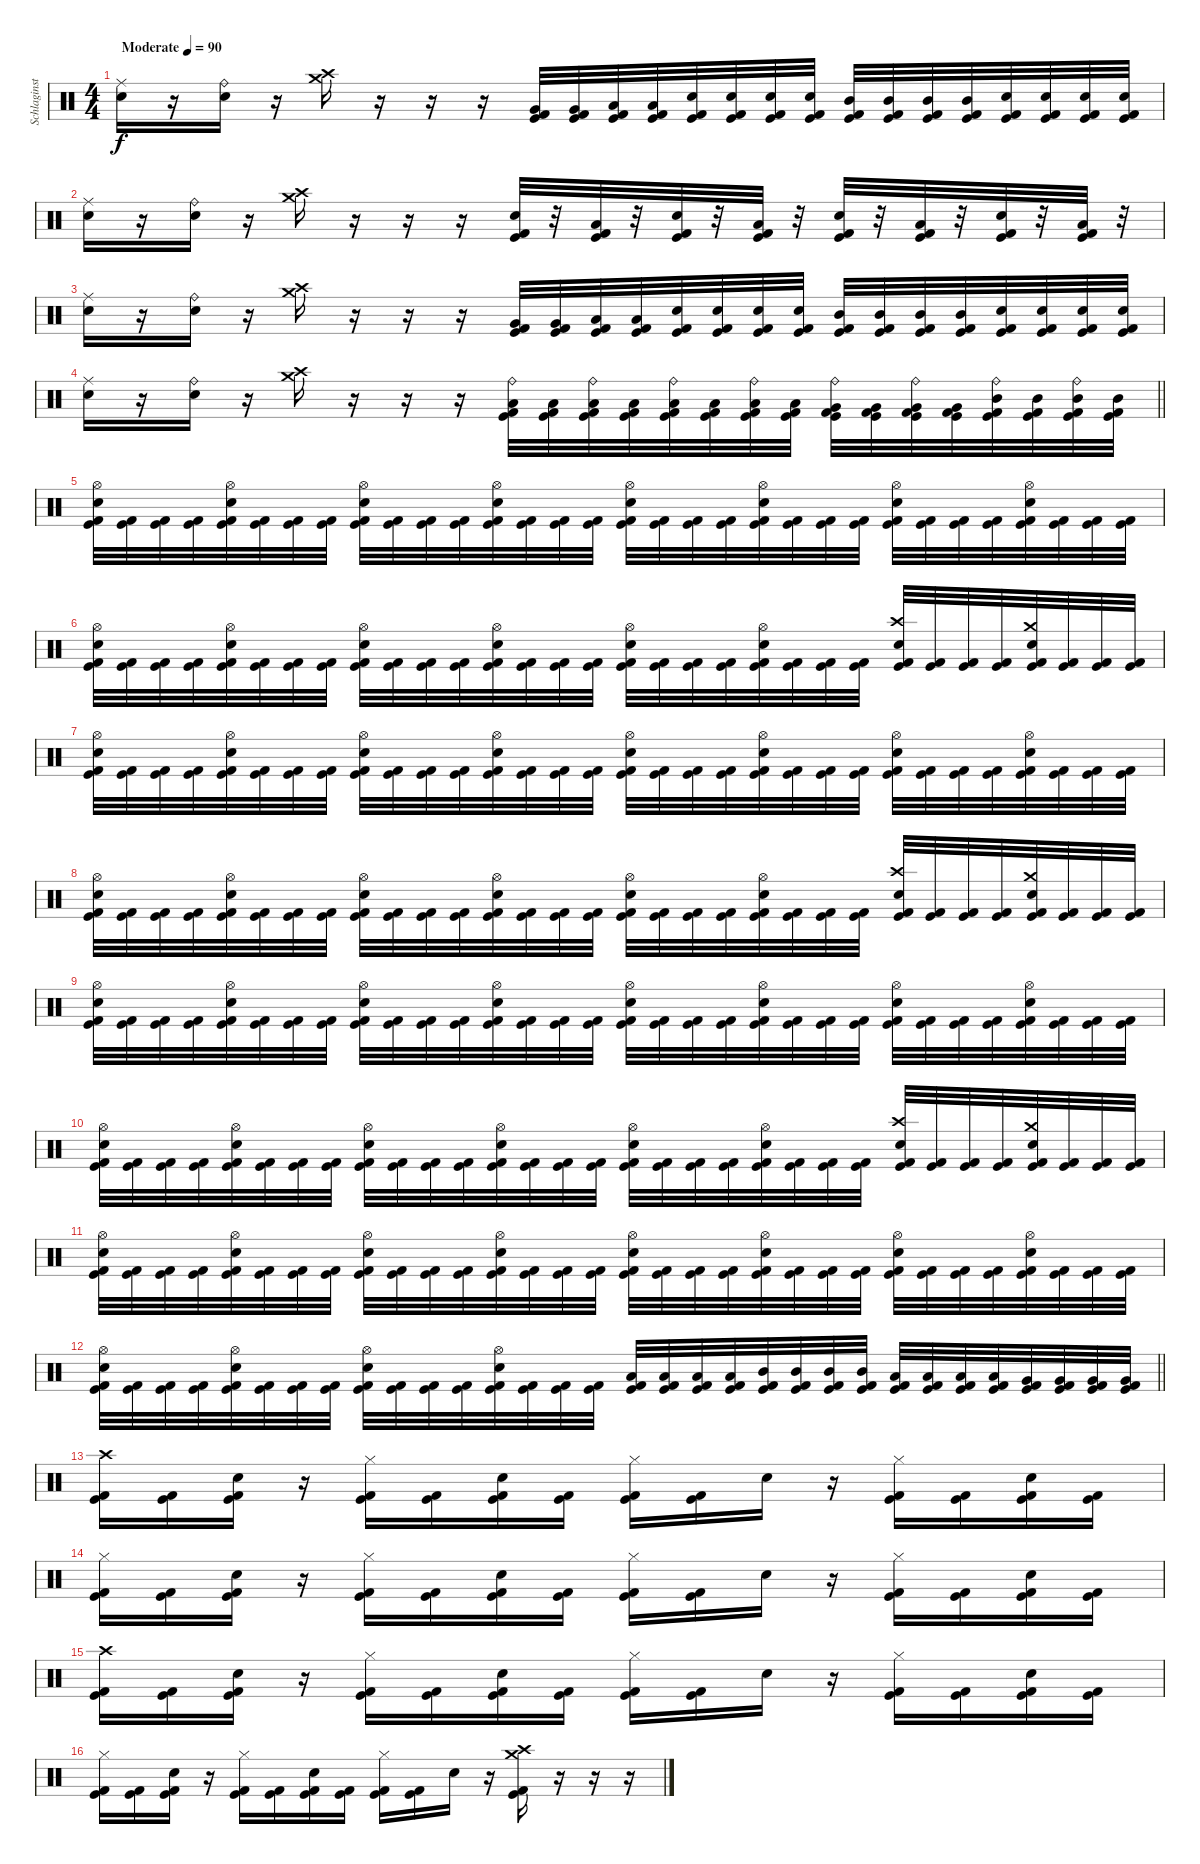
\track ("Schlaginstrumente - Auswahl" "Schlaginst") {instrument percussion}
\staff {score}
\articulation defaults
\ts (4 4)
\tempo (90 "Moderate")
\clef neutral
\ks c
("Ride (middle)" "Electric Snare (hit)").16{dy f} r.16 ("Ride (bell)" "Snare (hit) 2").16 r.16 ("Crash high (hit)" "Crash medium (hit)").16 r.16 r.16 r.16 ("Very Low Tom (hit)" "Kick (hit)" "Kick (hit) 2").32 ("Very Low Tom (hit)" "Kick (hit)" "Kick (hit) 2").32 ("Low Floor Tom (hit)" "Kick (hit)" "Kick (hit) 2").32 ("Low Floor Tom (hit)" "Kick (hit)" "Kick (hit) 2").32 ("Electric Snare (hit)" "Kick (hit)" "Kick (hit) 2").32 ("Electric Snare (hit)" "Kick (hit)" "Kick (hit) 2").32 ("Electric Snare (hit)" "Kick (hit)" "Kick (hit) 2").32 ("Electric Snare (hit)" "Kick (hit)" "Kick (hit) 2").32 ("Mid Tom (hit)" "Kick (hit)" "Kick (hit) 2").32 ("Mid Tom (hit)" "Kick (hit)" "Kick (hit) 2").32 ("Mid Tom (hit)" "Kick (hit)" "Kick (hit) 2").32 ("Mid Tom (hit)" "Kick (hit)" "Kick (hit) 2").32 ("Electric Snare (hit)" "Kick (hit)" "Kick (hit) 2").32 ("Electric Snare (hit)" "Kick (hit)" "Kick (hit) 2").32 ("Electric Snare (hit)" "Kick (hit)" "Kick (hit) 2").32 ("Electric Snare (hit)" "Kick (hit)" "Kick (hit) 2").32 |
("Ride (middle)" "Electric Snare (hit)").16 r.16 ("Ride (bell)" "Snare (hit) 2").16 r.16 ("Crash high (hit)" "Crash medium (hit)").16 r.16 r.16 r.16 ("Electric Snare (hit)" "Kick (hit)" "Kick (hit) 2").32 r.32 ("Low Floor Tom (hit)" "Kick (hit)" "Kick (hit) 2").32 r.32 ("Electric Snare (hit)" "Kick (hit)" "Kick (hit) 2").32 r.32 ("Low Floor Tom (hit)" "Kick (hit)" "Kick (hit) 2").32 r.32 ("Electric Snare (hit)" "Kick (hit)" "Kick (hit) 2").32 r.32 ("Low Floor Tom (hit)" "Kick (hit)" "Kick (hit) 2").32 r.32 ("Electric Snare (hit)" "Kick (hit)" "Kick (hit) 2").32 r.32 ("Low Floor Tom (hit)" "Kick (hit)" "Kick (hit) 2").32 r.32 |
("Ride (middle)" "Electric Snare (hit)").16 r.16 ("Ride (bell)" "Snare (hit) 2").16 r.16 ("Crash high (hit)" "Crash medium (hit)").16 r.16 r.16 r.16 ("Very Low Tom (hit)" "Kick (hit)" "Kick (hit) 2").32 ("Very Low Tom (hit)" "Kick (hit)" "Kick (hit) 2").32 ("Low Floor Tom (hit)" "Kick (hit)" "Kick (hit) 2").32 ("Low Floor Tom (hit)" "Kick (hit)" "Kick (hit) 2").32 ("Electric Snare (hit)" "Kick (hit)" "Kick (hit) 2").32 ("Electric Snare (hit)" "Kick (hit)" "Kick (hit) 2").32 ("Electric Snare (hit)" "Kick (hit)" "Kick (hit) 2").32 ("Electric Snare (hit)" "Kick (hit)" "Kick (hit) 2").32 ("Mid Tom (hit)" "Kick (hit)" "Kick (hit) 2").32 ("Mid Tom (hit)" "Kick (hit)" "Kick (hit) 2").32 ("Mid Tom (hit)" "Kick (hit)" "Kick (hit) 2").32 ("Mid Tom (hit)" "Kick (hit)" "Kick (hit) 2").32 ("Electric Snare (hit)" "Kick (hit)" "Kick (hit) 2").32 ("Electric Snare (hit)" "Kick (hit)" "Kick (hit) 2").32 ("Electric Snare (hit)" "Kick (hit)" "Kick (hit) 2").32 ("Electric Snare (hit)" "Kick (hit)" "Kick (hit) 2").32 |
\barLineRight lightlight
("Ride (middle)" "Electric Snare (hit)").16 r.16 ("Ride (bell)" "Snare (hit) 2").16 r.16 ("Crash high (hit)" "Crash medium (hit)").16 r.16 r.16 r.16 ("Ride (bell)" "Low Tom (hit)" "Kick (hit)" "Kick (hit) 2").32 ("Low Tom (hit)" "Kick (hit)" "Kick (hit) 2").32 ("Ride (bell)" "Low Tom (hit)" "Kick (hit)" "Kick (hit) 2").32 ("Low Tom (hit)" "Kick (hit)" "Kick (hit) 2").32 ("Ride (bell)" "Low Floor Tom (hit)" "Kick (hit)" "Kick (hit) 2").32 ("Low Floor Tom (hit)" "Kick (hit)" "Kick (hit) 2").32 ("Ride (bell)" "Low Floor Tom (hit)" "Kick (hit)" "Kick (hit) 2").32 ("Low Floor Tom (hit)" "Kick (hit)" "Kick (hit) 2").32 ("Ride (bell)" "Very Low Tom (hit)" "Kick (hit)" "Kick (hit) 2").32 ("Very Low Tom (hit)" "Kick (hit)" "Kick (hit) 2").32 ("Ride (bell)" "Very Low Tom (hit)" "Kick (hit)" "Kick (hit) 2").32 ("Very Low Tom (hit)" "Kick (hit)" "Kick (hit) 2").32 ("Ride (bell)" "Mid Tom (hit)" "Kick (hit)" "Kick (hit) 2").32 ("Mid Tom (hit)" "Kick (hit)" "Kick (hit) 2").32 ("Ride (bell)" "Mid Tom (hit)" "Kick (hit)" "Kick (hit) 2").32 ("Mid Tom (hit)" "Kick (hit)" "Kick (hit) 2").32 |
("Hi-Hat (open)" "Electric Snare (hit)" "Kick (hit)" "Kick (hit) 2").32 ("Kick (hit)" "Kick (hit) 2").32 ("Kick (hit)" "Kick (hit) 2").32 ("Kick (hit)" "Kick (hit) 2").32 ("Hi-Hat (open)" "Electric Snare (hit)" "Kick (hit)" "Kick (hit) 2").32 ("Kick (hit)" "Kick (hit) 2").32 ("Kick (hit)" "Kick (hit) 2").32 ("Kick (hit)" "Kick (hit) 2").32 ("Hi-Hat (open)" "Electric Snare (hit)" "Kick (hit)" "Kick (hit) 2").32 ("Kick (hit)" "Kick (hit) 2").32 ("Kick (hit)" "Kick (hit) 2").32 ("Kick (hit)" "Kick (hit) 2").32 ("Hi-Hat (open)" "Electric Snare (hit)" "Kick (hit)" "Kick (hit) 2").32 ("Kick (hit)" "Kick (hit) 2").32 ("Kick (hit)" "Kick (hit) 2").32 ("Kick (hit)" "Kick (hit) 2").32 ("Hi-Hat (open)" "Electric Snare (hit)" "Kick (hit)" "Kick (hit) 2").32 ("Kick (hit)" "Kick (hit) 2").32 ("Kick (hit)" "Kick (hit) 2").32 ("Kick (hit)" "Kick (hit) 2").32 ("Hi-Hat (open)" "Electric Snare (hit)" "Kick (hit)" "Kick (hit) 2").32 ("Kick (hit)" "Kick (hit) 2").32 ("Kick (hit)" "Kick (hit) 2").32 ("Kick (hit)" "Kick (hit) 2").32 ("Hi-Hat (open)" "Electric Snare (hit)" "Kick (hit)" "Kick (hit) 2").32 ("Kick (hit)" "Kick (hit) 2").32 ("Kick (hit)" "Kick (hit) 2").32 ("Kick (hit)" "Kick (hit) 2").32 ("Hi-Hat (open)" "Electric Snare (hit)" "Kick (hit)" "Kick (hit) 2").32 ("Kick (hit)" "Kick (hit) 2").32 ("Kick (hit)" "Kick (hit) 2").32 ("Kick (hit)" "Kick (hit) 2").32 |
("Hi-Hat (open)" "Electric Snare (hit)" "Kick (hit)" "Kick (hit) 2").32 ("Kick (hit)" "Kick (hit) 2").32 ("Kick (hit)" "Kick (hit) 2").32 ("Kick (hit)" "Kick (hit) 2").32 ("Hi-Hat (open)" "Electric Snare (hit)" "Kick (hit)" "Kick (hit) 2").32 ("Kick (hit)" "Kick (hit) 2").32 ("Kick (hit)" "Kick (hit) 2").32 ("Kick (hit)" "Kick (hit) 2").32 ("Hi-Hat (open)" "Electric Snare (hit)" "Kick (hit)" "Kick (hit) 2").32 ("Kick (hit)" "Kick (hit) 2").32 ("Kick (hit)" "Kick (hit) 2").32 ("Kick (hit)" "Kick (hit) 2").32 ("Hi-Hat (open)" "Electric Snare (hit)" "Kick (hit)" "Kick (hit) 2").32 ("Kick (hit)" "Kick (hit) 2").32 ("Kick (hit)" "Kick (hit) 2").32 ("Kick (hit)" "Kick (hit) 2").32 ("Hi-Hat (open)" "Electric Snare (hit)" "Kick (hit)" "Kick (hit) 2").32 ("Kick (hit)" "Kick (hit) 2").32 ("Kick (hit)" "Kick (hit) 2").32 ("Kick (hit)" "Kick (hit) 2").32 ("Hi-Hat (open)" "Electric Snare (hit)" "Kick (hit)" "Kick (hit) 2").32 ("Kick (hit)" "Kick (hit) 2").32 ("Kick (hit)" "Kick (hit) 2").32 ("Kick (hit)" "Kick (hit) 2").32 ("Crash high (hit)" "Electric Snare (hit)" "Kick (hit)" "Kick (hit) 2").32 ("Kick (hit)" "Kick (hit) 2").32 ("Kick (hit)" "Kick (hit) 2").32 ("Kick (hit)" "Kick (hit) 2").32 ("Crash medium (hit)" "Electric Snare (hit)" "Kick (hit)" "Kick (hit) 2").32 ("Kick (hit)" "Kick (hit) 2").32 ("Kick (hit)" "Kick (hit) 2").32 ("Kick (hit)" "Kick (hit) 2").32 |
("Hi-Hat (open)" "Electric Snare (hit)" "Kick (hit)" "Kick (hit) 2").32 ("Kick (hit)" "Kick (hit) 2").32 ("Kick (hit)" "Kick (hit) 2").32 ("Kick (hit)" "Kick (hit) 2").32 ("Hi-Hat (open)" "Electric Snare (hit)" "Kick (hit)" "Kick (hit) 2").32 ("Kick (hit)" "Kick (hit) 2").32 ("Kick (hit)" "Kick (hit) 2").32 ("Kick (hit)" "Kick (hit) 2").32 ("Hi-Hat (open)" "Electric Snare (hit)" "Kick (hit)" "Kick (hit) 2").32 ("Kick (hit)" "Kick (hit) 2").32 ("Kick (hit)" "Kick (hit) 2").32 ("Kick (hit)" "Kick (hit) 2").32 ("Hi-Hat (open)" "Electric Snare (hit)" "Kick (hit)" "Kick (hit) 2").32 ("Kick (hit)" "Kick (hit) 2").32 ("Kick (hit)" "Kick (hit) 2").32 ("Kick (hit)" "Kick (hit) 2").32 ("Hi-Hat (open)" "Electric Snare (hit)" "Kick (hit)" "Kick (hit) 2").32 ("Kick (hit)" "Kick (hit) 2").32 ("Kick (hit)" "Kick (hit) 2").32 ("Kick (hit)" "Kick (hit) 2").32 ("Hi-Hat (open)" "Electric Snare (hit)" "Kick (hit)" "Kick (hit) 2").32 ("Kick (hit)" "Kick (hit) 2").32 ("Kick (hit)" "Kick (hit) 2").32 ("Kick (hit)" "Kick (hit) 2").32 ("Hi-Hat (open)" "Electric Snare (hit)" "Kick (hit)" "Kick (hit) 2").32 ("Kick (hit)" "Kick (hit) 2").32 ("Kick (hit)" "Kick (hit) 2").32 ("Kick (hit)" "Kick (hit) 2").32 ("Hi-Hat (open)" "Electric Snare (hit)" "Kick (hit)" "Kick (hit) 2").32 ("Kick (hit)" "Kick (hit) 2").32 ("Kick (hit)" "Kick (hit) 2").32 ("Kick (hit)" "Kick (hit) 2").32 |
("Hi-Hat (open)" "Electric Snare (hit)" "Kick (hit)" "Kick (hit) 2").32 ("Kick (hit)" "Kick (hit) 2").32 ("Kick (hit)" "Kick (hit) 2").32 ("Kick (hit)" "Kick (hit) 2").32 ("Hi-Hat (open)" "Electric Snare (hit)" "Kick (hit)" "Kick (hit) 2").32 ("Kick (hit)" "Kick (hit) 2").32 ("Kick (hit)" "Kick (hit) 2").32 ("Kick (hit)" "Kick (hit) 2").32 ("Hi-Hat (open)" "Electric Snare (hit)" "Kick (hit)" "Kick (hit) 2").32 ("Kick (hit)" "Kick (hit) 2").32 ("Kick (hit)" "Kick (hit) 2").32 ("Kick (hit)" "Kick (hit) 2").32 ("Hi-Hat (open)" "Electric Snare (hit)" "Kick (hit)" "Kick (hit) 2").32 ("Kick (hit)" "Kick (hit) 2").32 ("Kick (hit)" "Kick (hit) 2").32 ("Kick (hit)" "Kick (hit) 2").32 ("Hi-Hat (open)" "Electric Snare (hit)" "Kick (hit)" "Kick (hit) 2").32 ("Kick (hit)" "Kick (hit) 2").32 ("Kick (hit)" "Kick (hit) 2").32 ("Kick (hit)" "Kick (hit) 2").32 ("Hi-Hat (open)" "Electric Snare (hit)" "Kick (hit)" "Kick (hit) 2").32 ("Kick (hit)" "Kick (hit) 2").32 ("Kick (hit)" "Kick (hit) 2").32 ("Kick (hit)" "Kick (hit) 2").32 ("Crash high (hit)" "Electric Snare (hit)" "Kick (hit)" "Kick (hit) 2").32 ("Kick (hit)" "Kick (hit) 2").32 ("Kick (hit)" "Kick (hit) 2").32 ("Kick (hit)" "Kick (hit) 2").32 ("Crash medium (hit)" "Electric Snare (hit)" "Kick (hit)" "Kick (hit) 2").32 ("Kick (hit)" "Kick (hit) 2").32 ("Kick (hit)" "Kick (hit) 2").32 ("Kick (hit)" "Kick (hit) 2").32 |
("Hi-Hat (open)" "Electric Snare (hit)" "Kick (hit)" "Kick (hit) 2").32 ("Kick (hit)" "Kick (hit) 2").32 ("Kick (hit)" "Kick (hit) 2").32 ("Kick (hit)" "Kick (hit) 2").32 ("Hi-Hat (open)" "Electric Snare (hit)" "Kick (hit)" "Kick (hit) 2").32 ("Kick (hit)" "Kick (hit) 2").32 ("Kick (hit)" "Kick (hit) 2").32 ("Kick (hit)" "Kick (hit) 2").32 ("Hi-Hat (open)" "Electric Snare (hit)" "Kick (hit)" "Kick (hit) 2").32 ("Kick (hit)" "Kick (hit) 2").32 ("Kick (hit)" "Kick (hit) 2").32 ("Kick (hit)" "Kick (hit) 2").32 ("Hi-Hat (open)" "Electric Snare (hit)" "Kick (hit)" "Kick (hit) 2").32 ("Kick (hit)" "Kick (hit) 2").32 ("Kick (hit)" "Kick (hit) 2").32 ("Kick (hit)" "Kick (hit) 2").32 ("Hi-Hat (open)" "Electric Snare (hit)" "Kick (hit)" "Kick (hit) 2").32 ("Kick (hit)" "Kick (hit) 2").32 ("Kick (hit)" "Kick (hit) 2").32 ("Kick (hit)" "Kick (hit) 2").32 ("Hi-Hat (open)" "Electric Snare (hit)" "Kick (hit)" "Kick (hit) 2").32 ("Kick (hit)" "Kick (hit) 2").32 ("Kick (hit)" "Kick (hit) 2").32 ("Kick (hit)" "Kick (hit) 2").32 ("Hi-Hat (open)" "Electric Snare (hit)" "Kick (hit)" "Kick (hit) 2").32 ("Kick (hit)" "Kick (hit) 2").32 ("Kick (hit)" "Kick (hit) 2").32 ("Kick (hit)" "Kick (hit) 2").32 ("Hi-Hat (open)" "Electric Snare (hit)" "Kick (hit)" "Kick (hit) 2").32 ("Kick (hit)" "Kick (hit) 2").32 ("Kick (hit)" "Kick (hit) 2").32 ("Kick (hit)" "Kick (hit) 2").32 |
("Hi-Hat (open)" "Electric Snare (hit)" "Kick (hit)" "Kick (hit) 2").32 ("Kick (hit)" "Kick (hit) 2").32 ("Kick (hit)" "Kick (hit) 2").32 ("Kick (hit)" "Kick (hit) 2").32 ("Hi-Hat (open)" "Electric Snare (hit)" "Kick (hit)" "Kick (hit) 2").32 ("Kick (hit)" "Kick (hit) 2").32 ("Kick (hit)" "Kick (hit) 2").32 ("Kick (hit)" "Kick (hit) 2").32 ("Hi-Hat (open)" "Electric Snare (hit)" "Kick (hit)" "Kick (hit) 2").32 ("Kick (hit)" "Kick (hit) 2").32 ("Kick (hit)" "Kick (hit) 2").32 ("Kick (hit)" "Kick (hit) 2").32 ("Hi-Hat (open)" "Electric Snare (hit)" "Kick (hit)" "Kick (hit) 2").32 ("Kick (hit)" "Kick (hit) 2").32 ("Kick (hit)" "Kick (hit) 2").32 ("Kick (hit)" "Kick (hit) 2").32 ("Hi-Hat (open)" "Electric Snare (hit)" "Kick (hit)" "Kick (hit) 2").32 ("Kick (hit)" "Kick (hit) 2").32 ("Kick (hit)" "Kick (hit) 2").32 ("Kick (hit)" "Kick (hit) 2").32 ("Hi-Hat (open)" "Electric Snare (hit)" "Kick (hit)" "Kick (hit) 2").32 ("Kick (hit)" "Kick (hit) 2").32 ("Kick (hit)" "Kick (hit) 2").32 ("Kick (hit)" "Kick (hit) 2").32 ("Crash high (hit)" "Electric Snare (hit)" "Kick (hit)" "Kick (hit) 2").32 ("Kick (hit)" "Kick (hit) 2").32 ("Kick (hit)" "Kick (hit) 2").32 ("Kick (hit)" "Kick (hit) 2").32 ("Crash medium (hit)" "Electric Snare (hit)" "Kick (hit)" "Kick (hit) 2").32 ("Kick (hit)" "Kick (hit) 2").32 ("Kick (hit)" "Kick (hit) 2").32 ("Kick (hit)" "Kick (hit) 2").32 |
("Hi-Hat (open)" "Electric Snare (hit)" "Kick (hit)" "Kick (hit) 2").32 ("Kick (hit)" "Kick (hit) 2").32 ("Kick (hit)" "Kick (hit) 2").32 ("Kick (hit)" "Kick (hit) 2").32 ("Hi-Hat (open)" "Electric Snare (hit)" "Kick (hit)" "Kick (hit) 2").32 ("Kick (hit)" "Kick (hit) 2").32 ("Kick (hit)" "Kick (hit) 2").32 ("Kick (hit)" "Kick (hit) 2").32 ("Hi-Hat (open)" "Electric Snare (hit)" "Kick (hit)" "Kick (hit) 2").32 ("Kick (hit)" "Kick (hit) 2").32 ("Kick (hit)" "Kick (hit) 2").32 ("Kick (hit)" "Kick (hit) 2").32 ("Hi-Hat (open)" "Electric Snare (hit)" "Kick (hit)" "Kick (hit) 2").32 ("Kick (hit)" "Kick (hit) 2").32 ("Kick (hit)" "Kick (hit) 2").32 ("Kick (hit)" "Kick (hit) 2").32 ("Hi-Hat (open)" "Electric Snare (hit)" "Kick (hit)" "Kick (hit) 2").32 ("Kick (hit)" "Kick (hit) 2").32 ("Kick (hit)" "Kick (hit) 2").32 ("Kick (hit)" "Kick (hit) 2").32 ("Hi-Hat (open)" "Electric Snare (hit)" "Kick (hit)" "Kick (hit) 2").32 ("Kick (hit)" "Kick (hit) 2").32 ("Kick (hit)" "Kick (hit) 2").32 ("Kick (hit)" "Kick (hit) 2").32 ("Hi-Hat (open)" "Electric Snare (hit)" "Kick (hit)" "Kick (hit) 2").32 ("Kick (hit)" "Kick (hit) 2").32 ("Kick (hit)" "Kick (hit) 2").32 ("Kick (hit)" "Kick (hit) 2").32 ("Hi-Hat (open)" "Electric Snare (hit)" "Kick (hit)" "Kick (hit) 2").32 ("Kick (hit)" "Kick (hit) 2").32 ("Kick (hit)" "Kick (hit) 2").32 ("Kick (hit)" "Kick (hit) 2").32 |
\barLineRight lightlight
("Hi-Hat (open)" "Electric Snare (hit)" "Kick (hit)" "Kick (hit) 2").32 ("Kick (hit)" "Kick (hit) 2").32 ("Kick (hit)" "Kick (hit) 2").32 ("Kick (hit)" "Kick (hit) 2").32 ("Hi-Hat (open)" "Electric Snare (hit)" "Kick (hit)" "Kick (hit) 2").32 ("Kick (hit)" "Kick (hit) 2").32 ("Kick (hit)" "Kick (hit) 2").32 ("Kick (hit)" "Kick (hit) 2").32 ("Hi-Hat (open)" "Electric Snare (hit)" "Kick (hit)" "Kick (hit) 2").32 ("Kick (hit)" "Kick (hit) 2").32 ("Kick (hit)" "Kick (hit) 2").32 ("Kick (hit)" "Kick (hit) 2").32 ("Hi-Hat (open)" "Electric Snare (hit)" "Kick (hit)" "Kick (hit) 2").32 ("Kick (hit)" "Kick (hit) 2").32 ("Kick (hit)" "Kick (hit) 2").32 ("Kick (hit)" "Kick (hit) 2").32 ("Low Floor Tom (hit)" "Kick (hit)" "Kick (hit) 2").32 ("Low Floor Tom (hit)" "Kick (hit)" "Kick (hit) 2").32 ("Low Floor Tom (hit)" "Kick (hit)" "Kick (hit) 2").32 ("Low Floor Tom (hit)" "Kick (hit)" "Kick (hit) 2").32 ("Mid Tom (hit)" "Kick (hit)" "Kick (hit) 2").32 ("Mid Tom (hit)" "Kick (hit)" "Kick (hit) 2").32 ("Mid Tom (hit)" "Kick (hit)" "Kick (hit) 2").32 ("Mid Tom (hit)" "Kick (hit)" "Kick (hit) 2").32 ("Low Tom (hit)" "Kick (hit)" "Kick (hit) 2").32 ("Low Tom (hit)" "Kick (hit)" "Kick (hit) 2").32 ("Low Tom (hit)" "Kick (hit)" "Kick (hit) 2").32 ("Low Tom (hit)" "Kick (hit)" "Kick (hit) 2").32 ("Very Low Tom (hit)" "Kick (hit)" "Kick (hit) 2").32 ("Very Low Tom (hit)" "Kick (hit)" "Kick (hit) 2").32 ("Very Low Tom (hit)" "Kick (hit)" "Kick (hit) 2").32 ("Very Low Tom (hit)" "Kick (hit)" "Kick (hit) 2").32 |
("Crash high (hit)" "Kick (hit)" "Kick (hit) 2").16 ("Kick (hit)" "Kick (hit) 2").16 ("Electric Snare (hit)" "Kick (hit)" "Kick (hit) 2").16 r.16 ("Hi-Hat (closed)" "Kick (hit)" "Kick (hit) 2").16 ("Kick (hit)" "Kick (hit) 2").16 ("Electric Snare (hit)" "Kick (hit)" "Kick (hit) 2").16 ("Kick (hit)" "Kick (hit) 2").16 ("Hi-Hat (closed)" "Kick (hit)" "Kick (hit) 2").16 ("Kick (hit)" "Kick (hit) 2").16 "Electric Snare (hit)".16 r.16 ("Hi-Hat (closed)" "Kick (hit)" "Kick (hit) 2").16 ("Kick (hit)" "Kick (hit) 2").16 ("Electric Snare (hit)" "Kick (hit)" "Kick (hit) 2").16 ("Kick (hit)" "Kick (hit) 2").16 |
("Hi-Hat (closed)" "Kick (hit)" "Kick (hit) 2").16 ("Kick (hit)" "Kick (hit) 2").16 ("Electric Snare (hit)" "Kick (hit)" "Kick (hit) 2").16 r.16 ("Hi-Hat (closed)" "Kick (hit)" "Kick (hit) 2").16 ("Kick (hit)" "Kick (hit) 2").16 ("Electric Snare (hit)" "Kick (hit)" "Kick (hit) 2").16 ("Kick (hit)" "Kick (hit) 2").16 ("Hi-Hat (closed)" "Kick (hit)" "Kick (hit) 2").16 ("Kick (hit)" "Kick (hit) 2").16 "Electric Snare (hit)".16 r.16 ("Hi-Hat (closed)" "Kick (hit)" "Kick (hit) 2").16 ("Kick (hit)" "Kick (hit) 2").16 ("Electric Snare (hit)" "Kick (hit)" "Kick (hit) 2").16 ("Kick (hit)" "Kick (hit) 2").16 |
("Crash high (hit)" "Kick (hit)" "Kick (hit) 2").16 ("Kick (hit)" "Kick (hit) 2").16 ("Electric Snare (hit)" "Kick (hit)" "Kick (hit) 2").16 r.16 ("Hi-Hat (closed)" "Kick (hit)" "Kick (hit) 2").16 ("Kick (hit)" "Kick (hit) 2").16 ("Electric Snare (hit)" "Kick (hit)" "Kick (hit) 2").16 ("Kick (hit)" "Kick (hit) 2").16 ("Hi-Hat (closed)" "Kick (hit)" "Kick (hit) 2").16 ("Kick (hit)" "Kick (hit) 2").16 "Electric Snare (hit)".16 r.16 ("Hi-Hat (closed)" "Kick (hit)" "Kick (hit) 2").16 ("Kick (hit)" "Kick (hit) 2").16 ("Electric Snare (hit)" "Kick (hit)" "Kick (hit) 2").16 ("Kick (hit)" "Kick (hit) 2").16 |
("Hi-Hat (closed)" "Kick (hit)" "Kick (hit) 2").16 ("Kick (hit)" "Kick (hit) 2").16 ("Electric Snare (hit)" "Kick (hit)" "Kick (hit) 2").16 r.16 ("Hi-Hat (closed)" "Kick (hit)" "Kick (hit) 2").16 ("Kick (hit)" "Kick (hit) 2").16 ("Electric Snare (hit)" "Kick (hit)" "Kick (hit) 2").16 ("Kick (hit)" "Kick (hit) 2").16 ("Hi-Hat (closed)" "Kick (hit)" "Kick (hit) 2").16 ("Kick (hit)" "Kick (hit) 2").16 "Electric Snare (hit)".16 r.16 ("Crash high (hit)" "Crash medium (hit)" "Kick (hit)" "Kick (hit) 2").16 r.16 r.16 r.16
